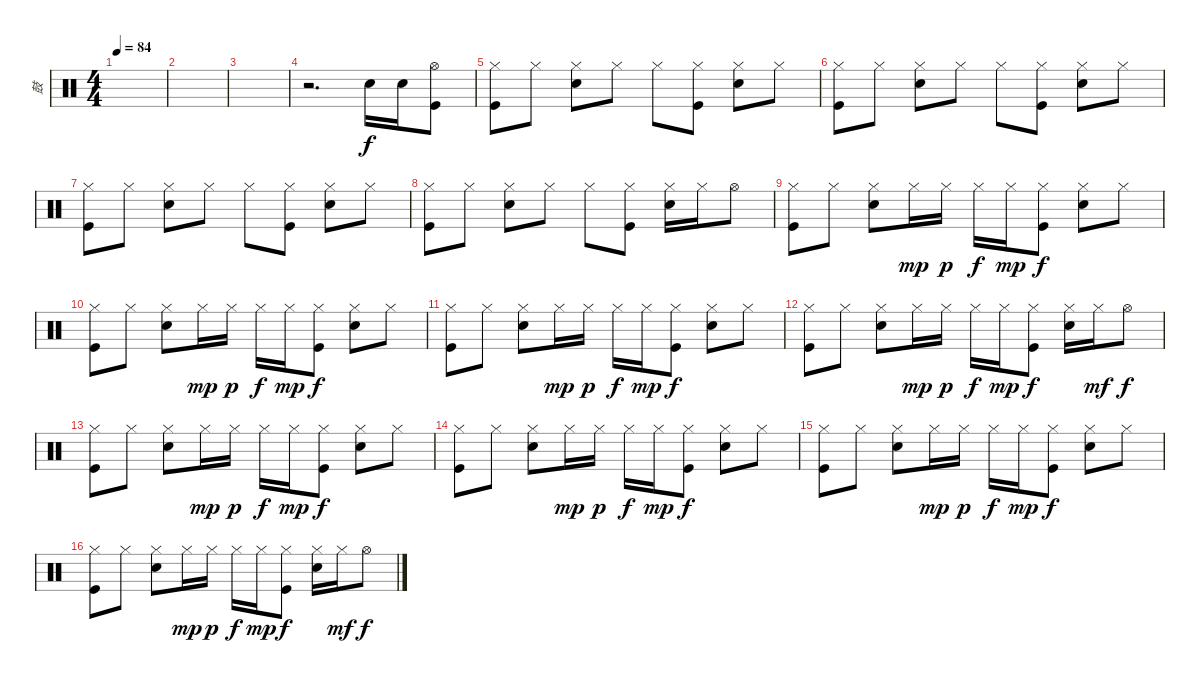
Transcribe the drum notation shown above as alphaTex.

\track ("鼓" "鼓") {instrument percussion}
\staff {score}
\articulation defaults
\ts (4 4)
\tempo 84
\clef neutral
\ks c
|
|
|
r.2{d} "Electric Snare (hit)".16 "Electric Snare (hit)".16 ("Hi-Hat (open)" "Kick (hit)").8 |
("Hi-Hat (closed)" "Kick (hit)").8 "Hi-Hat (closed)".8 ("Hi-Hat (closed)" "Electric Snare (hit)").8 "Hi-Hat (closed)".8 "Hi-Hat (closed)".8 ("Hi-Hat (closed)" "Kick (hit)").8 ("Hi-Hat (closed)" "Electric Snare (hit)").8 "Hi-Hat (closed)".8 |
("Hi-Hat (closed)" "Kick (hit)").8 "Hi-Hat (closed)".8 ("Hi-Hat (closed)" "Electric Snare (hit)").8 "Hi-Hat (closed)".8 "Hi-Hat (closed)".8 ("Hi-Hat (closed)" "Kick (hit)").8 ("Hi-Hat (closed)" "Electric Snare (hit)").8 "Hi-Hat (closed)".8 |
("Hi-Hat (closed)" "Kick (hit)").8 "Hi-Hat (closed)".8 ("Hi-Hat (closed)" "Electric Snare (hit)").8 "Hi-Hat (closed)".8 "Hi-Hat (closed)".8 ("Hi-Hat (closed)" "Kick (hit)").8 ("Hi-Hat (closed)" "Electric Snare (hit)").8 "Hi-Hat (closed)".8 |
("Hi-Hat (closed)" "Kick (hit)").8 "Hi-Hat (closed)".8 ("Hi-Hat (closed)" "Electric Snare (hit)").8 "Hi-Hat (closed)".8 "Hi-Hat (closed)".8 ("Hi-Hat (closed)" "Kick (hit)").8 ("Hi-Hat (closed)" "Electric Snare (hit)").16 "Hi-Hat (closed)".16 "Hi-Hat (open)".8 |
("Hi-Hat (closed)" "Kick (hit)").8 "Hi-Hat (closed)".8 ("Hi-Hat (closed)" "Electric Snare (hit)").8 "Hi-Hat (closed)".16{dy mp} "Hi-Hat (closed)".16{dy p} "Hi-Hat (closed)".16{dy f} "Hi-Hat (closed)".16{dy mp} ("Hi-Hat (closed)" "Kick (hit)").8{dy f} ("Hi-Hat (closed)" "Electric Snare (hit)").8 "Hi-Hat (closed)".8 |
("Hi-Hat (closed)" "Kick (hit)").8 "Hi-Hat (closed)".8 ("Hi-Hat (closed)" "Electric Snare (hit)").8 "Hi-Hat (closed)".16{dy mp} "Hi-Hat (closed)".16{dy p} "Hi-Hat (closed)".16{dy f} "Hi-Hat (closed)".16{dy mp} ("Hi-Hat (closed)" "Kick (hit)").8{dy f} ("Hi-Hat (closed)" "Electric Snare (hit)").8 "Hi-Hat (closed)".8 |
("Hi-Hat (closed)" "Kick (hit)").8 "Hi-Hat (closed)".8 ("Hi-Hat (closed)" "Electric Snare (hit)").8 "Hi-Hat (closed)".16{dy mp} "Hi-Hat (closed)".16{dy p} "Hi-Hat (closed)".16{dy f} "Hi-Hat (closed)".16{dy mp} ("Hi-Hat (closed)" "Kick (hit)").8{dy f} ("Hi-Hat (closed)" "Electric Snare (hit)").8 "Hi-Hat (closed)".8 |
("Hi-Hat (closed)" "Kick (hit)").8 "Hi-Hat (closed)".8 ("Hi-Hat (closed)" "Electric Snare (hit)").8 "Hi-Hat (closed)".16{dy mp} "Hi-Hat (closed)".16{dy p} "Hi-Hat (closed)".16{dy f} "Hi-Hat (closed)".16{dy mp} ("Hi-Hat (closed)" "Kick (hit)").8{dy f} ("Hi-Hat (closed)" "Electric Snare (hit)").16 "Hi-Hat (closed)".16{dy mf} "Hi-Hat (open)".8{dy f} |
("Hi-Hat (closed)" "Kick (hit)").8 "Hi-Hat (closed)".8 ("Hi-Hat (closed)" "Electric Snare (hit)").8 "Hi-Hat (closed)".16{dy mp} "Hi-Hat (closed)".16{dy p} "Hi-Hat (closed)".16{dy f} "Hi-Hat (closed)".16{dy mp} ("Hi-Hat (closed)" "Kick (hit)").8{dy f} ("Hi-Hat (closed)" "Electric Snare (hit)").8 "Hi-Hat (closed)".8 |
("Hi-Hat (closed)" "Kick (hit)").8 "Hi-Hat (closed)".8 ("Hi-Hat (closed)" "Electric Snare (hit)").8 "Hi-Hat (closed)".16{dy mp} "Hi-Hat (closed)".16{dy p} "Hi-Hat (closed)".16{dy f} "Hi-Hat (closed)".16{dy mp} ("Hi-Hat (closed)" "Kick (hit)").8{dy f} ("Hi-Hat (closed)" "Electric Snare (hit)").8 "Hi-Hat (closed)".8 |
("Hi-Hat (closed)" "Kick (hit)").8 "Hi-Hat (closed)".8 ("Hi-Hat (closed)" "Electric Snare (hit)").8 "Hi-Hat (closed)".16{dy mp} "Hi-Hat (closed)".16{dy p} "Hi-Hat (closed)".16{dy f} "Hi-Hat (closed)".16{dy mp} ("Hi-Hat (closed)" "Kick (hit)").8{dy f} ("Hi-Hat (closed)" "Electric Snare (hit)").8 "Hi-Hat (closed)".8 |
("Hi-Hat (closed)" "Kick (hit)").8 "Hi-Hat (closed)".8 ("Hi-Hat (closed)" "Electric Snare (hit)").8 "Hi-Hat (closed)".16{dy mp} "Hi-Hat (closed)".16{dy p} "Hi-Hat (closed)".16{dy f} "Hi-Hat (closed)".16{dy mp} ("Hi-Hat (closed)" "Kick (hit)").8{dy f} ("Hi-Hat (closed)" "Electric Snare (hit)").16 "Hi-Hat (closed)".16{dy mf} "Hi-Hat (open)".8{dy f}
